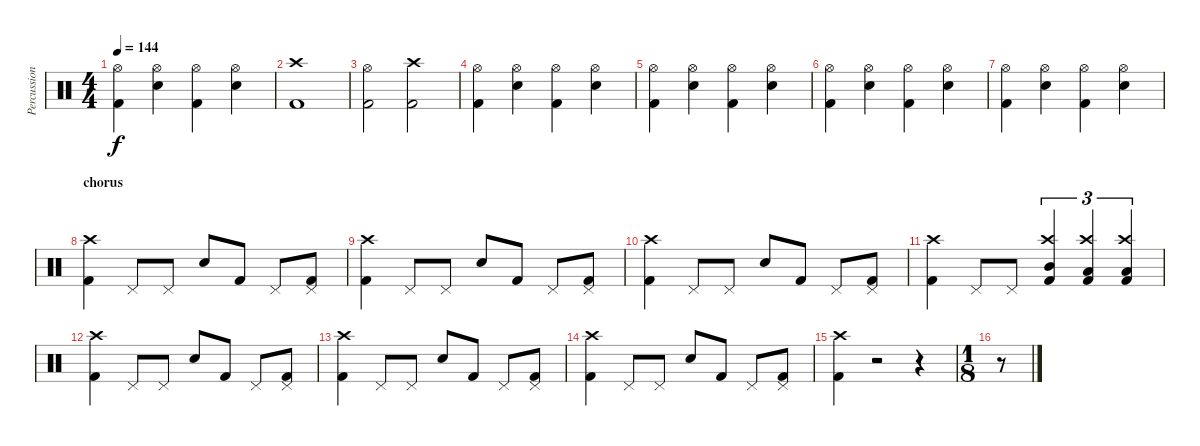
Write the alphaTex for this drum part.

\track ("Percussion" "Percussion") {instrument percussion}
\staff {score}
\articulation defaults
\ts (4 4)
\tempo 144
\clef neutral
\ks c
("Hi-Hat (open)" "Kick (hit) 2").4{dy f} ("Hi-Hat (open)" "Electric Snare (hit)").4 ("Hi-Hat (open)" "Kick (hit) 2").4 ("Hi-Hat (open)" "Electric Snare (hit)").4 |
("Crash high (hit)" "Kick (hit) 2").1 |
("Hi-Hat (open)" "Kick (hit) 2").2 ("Crash high (hit)" "Kick (hit) 2").2 |
("Hi-Hat (open)" "Kick (hit) 2").4 ("Hi-Hat (open)" "Electric Snare (hit)").4 ("Hi-Hat (open)" "Kick (hit) 2").4 ("Hi-Hat (open)" "Electric Snare (hit)").4 |
("Hi-Hat (open)" "Kick (hit) 2").4 ("Hi-Hat (open)" "Electric Snare (hit)").4 ("Hi-Hat (open)" "Kick (hit) 2").4 ("Hi-Hat (open)" "Electric Snare (hit)").4 |
("Hi-Hat (open)" "Kick (hit) 2").4 ("Hi-Hat (open)" "Electric Snare (hit)").4 ("Hi-Hat (open)" "Kick (hit) 2").4 ("Hi-Hat (open)" "Electric Snare (hit)").4 |
("Hi-Hat (open)" "Kick (hit) 2").4 ("Hi-Hat (open)" "Electric Snare (hit)").4 ("Hi-Hat (open)" "Kick (hit) 2").4 ("Hi-Hat (open)" "Electric Snare (hit)").4 |
\section ("" "chorus")
("Crash high (hit)" "Kick (hit) 2").4 "Pedal Hi-Hat (hit)".8 "Pedal Hi-Hat (hit)".8 "Electric Snare (hit)".8 "Kick (hit) 2".8 "Pedal Hi-Hat (hit)".8 ("Pedal Hi-Hat (hit)" "Kick (hit) 2").8 |
("Crash high (hit)" "Kick (hit) 2").4 "Pedal Hi-Hat (hit)".8 "Pedal Hi-Hat (hit)".8 "Electric Snare (hit)".8 "Kick (hit) 2".8 "Pedal Hi-Hat (hit)".8 ("Pedal Hi-Hat (hit)" "Kick (hit) 2").8 |
("Crash high (hit)" "Kick (hit) 2").4 "Pedal Hi-Hat (hit)".8 "Pedal Hi-Hat (hit)".8 "Electric Snare (hit)".8 "Kick (hit) 2".8 "Pedal Hi-Hat (hit)".8 ("Pedal Hi-Hat (hit)" "Kick (hit) 2").8 |
("Crash high (hit)" "Kick (hit) 2").4 "Pedal Hi-Hat (hit)".8 "Pedal Hi-Hat (hit)".8 ("Crash high (hit)" "Mid Tom (hit)" "Kick (hit) 2").4{tu (3 2)} ("Crash high (hit)" "Low Tom (hit)" "Kick (hit) 2").4{tu (3 2)} ("Crash high (hit)" "Low Floor Tom (hit)" "Kick (hit) 2").4{tu (3 2)} |
("Crash high (hit)" "Kick (hit) 2").4 "Pedal Hi-Hat (hit)".8 "Pedal Hi-Hat (hit)".8 "Electric Snare (hit)".8 "Kick (hit) 2".8 "Pedal Hi-Hat (hit)".8 ("Pedal Hi-Hat (hit)" "Kick (hit) 2").8 |
("Crash high (hit)" "Kick (hit) 2").4 "Pedal Hi-Hat (hit)".8 "Pedal Hi-Hat (hit)".8 "Electric Snare (hit)".8 "Kick (hit) 2".8 "Pedal Hi-Hat (hit)".8 ("Pedal Hi-Hat (hit)" "Kick (hit) 2").8 |
("Crash high (hit)" "Kick (hit) 2").4 "Pedal Hi-Hat (hit)".8 "Pedal Hi-Hat (hit)".8 "Electric Snare (hit)".8 "Kick (hit) 2".8 "Pedal Hi-Hat (hit)".8 ("Pedal Hi-Hat (hit)" "Kick (hit) 2").8 |
("Crash high (hit)" "Kick (hit) 2").4 r.2 r.4 |
\ts (1 8)
r.8
